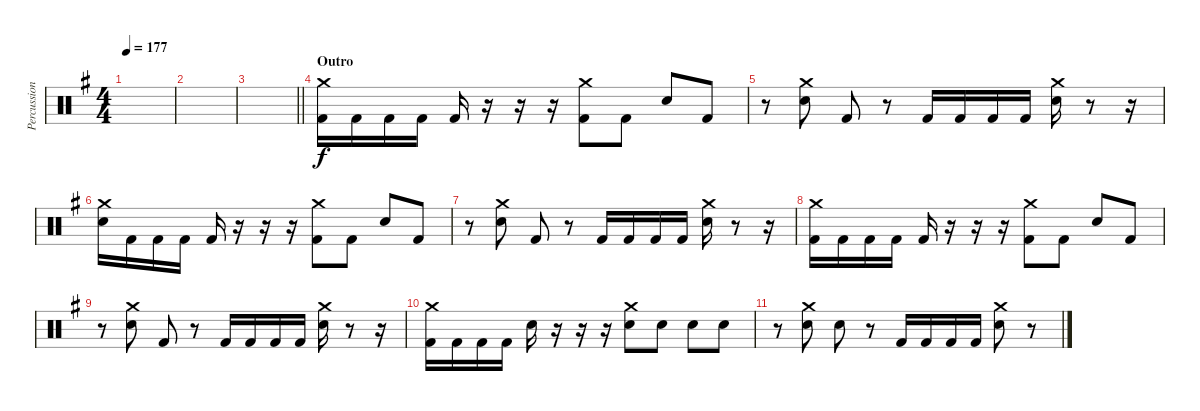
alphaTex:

\track ("Percussion" "Percussion") {instrument percussion}
\staff {score}
\articulation defaults
\ts (4 4)
\tempo 177
\clef neutral
\ks g
|
|
\barLineRight lightlight
|
\section ("" "Outro")
("Crash medium (hit)" "Kick (hit) 2").16 "Kick (hit) 2".16 "Kick (hit) 2".16 "Kick (hit) 2".16 "Kick (hit) 2".16 r.16 r.16 r.16 ("Crash medium (hit)" "Kick (hit) 2").8 "Kick (hit) 2".8 "Electric Snare (hit)".8 "Kick (hit) 2".8 |
r.8 ("Crash medium (hit)" "Electric Snare (hit)").8 "Kick (hit) 2".8 r.8 "Kick (hit) 2".16 "Kick (hit) 2".16 "Kick (hit) 2".16 "Kick (hit) 2".16 ("Crash medium (hit)" "Electric Snare (hit)").16 r.8 r.16 |
("Crash medium (hit)" "Electric Snare (hit)").16 "Kick (hit) 2".16 "Kick (hit) 2".16 "Kick (hit) 2".16 "Kick (hit) 2".16 r.16 r.16 r.16 ("Crash medium (hit)" "Kick (hit) 2").8 "Kick (hit) 2".8 "Electric Snare (hit)".8 "Kick (hit) 2".8 |
r.8 ("Crash medium (hit)" "Electric Snare (hit)").8 "Kick (hit) 2".8 r.8 "Kick (hit) 2".16 "Kick (hit) 2".16 "Kick (hit) 2".16 "Kick (hit) 2".16 ("Crash medium (hit)" "Electric Snare (hit)").16 r.8 r.16 |
("Crash medium (hit)" "Kick (hit) 2").16 "Kick (hit) 2".16 "Kick (hit) 2".16 "Kick (hit) 2".16 "Kick (hit) 2".16 r.16 r.16 r.16 ("Crash medium (hit)" "Kick (hit) 2").8 "Kick (hit) 2".8 "Electric Snare (hit)".8 "Kick (hit) 2".8 |
r.8 ("Crash medium (hit)" "Electric Snare (hit)").8 "Kick (hit) 2".8 r.8 "Kick (hit) 2".16 "Kick (hit) 2".16 "Kick (hit) 2".16 "Kick (hit) 2".16 ("Crash medium (hit)" "Electric Snare (hit)").16 r.8 r.16 |
("Crash medium (hit)" "Kick (hit) 2").16 "Kick (hit) 2".16 "Kick (hit) 2".16 "Kick (hit) 2".16 "Electric Snare (hit)".16 r.16 r.16 r.16 ("Crash medium (hit)" "Electric Snare (hit)").8 "Electric Snare (hit)".8 "Electric Snare (hit)".8 "Electric Snare (hit)".8 |
r.8 ("Crash medium (hit)" "Electric Snare (hit)").8 "Electric Snare (hit)".8 r.8 "Kick (hit) 2".16 "Kick (hit) 2".16 "Kick (hit) 2".16 "Kick (hit) 2".16 ("Crash medium (hit)" "Electric Snare (hit)").8 r.8
